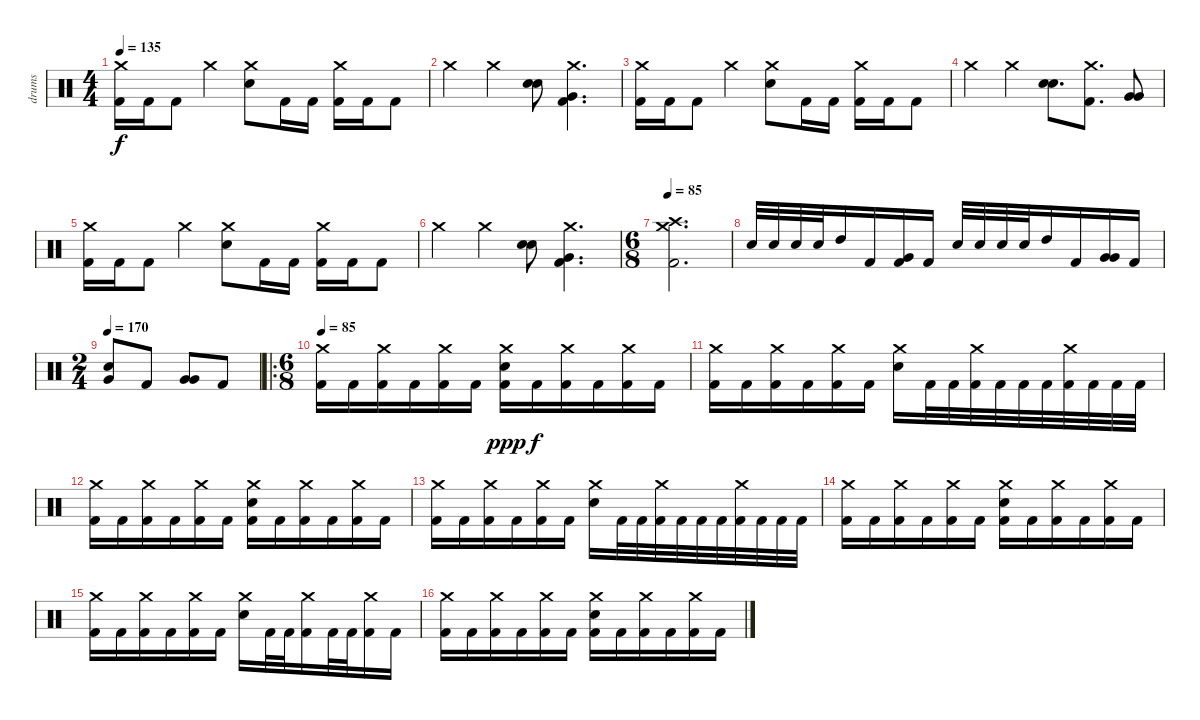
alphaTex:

\track ("drums" "drums") {instrument percussion}
\staff {score}
\articulation defaults
\ts (4 4)
\tempo 135
\clef neutral
\ks c
("Crash medium (hit)" "Kick (hit) 2").16{dy f} "Kick (hit) 2".16 "Kick (hit) 2".8 "Crash medium (hit)".4 ("Crash medium (hit)" "Electric Snare (hit)").8 "Kick (hit) 2".16 "Kick (hit) 2".16 ("Crash medium (hit)" "Kick (hit) 2").16 "Kick (hit) 2".16 "Kick (hit) 2".8 |
"Crash medium (hit)".4 "Crash medium (hit)".4 ("Electric Snare (hit)" "Electric Snare (hit)").8 ("Crash medium (hit)" "Very Low Tom (hit)" "Kick (hit) 2").4{d} |
("Crash medium (hit)" "Kick (hit) 2").16 "Kick (hit) 2".16 "Kick (hit) 2".8 "Crash medium (hit)".4 ("Crash medium (hit)" "Electric Snare (hit)").8 "Kick (hit) 2".16 "Kick (hit) 2".16 ("Crash medium (hit)" "Kick (hit) 2").16 "Kick (hit) 2".16 "Kick (hit) 2".8 |
"Crash medium (hit)".4 "Crash medium (hit)".4 ("Electric Snare (hit)" "Electric Snare (hit)").8{d} ("Crash medium (hit)" "Kick (hit) 2").8{d} ("Very Low Tom (hit)" "Very Low Tom (hit)").8 |
("Crash medium (hit)" "Kick (hit) 2").16 "Kick (hit) 2".16 "Kick (hit) 2".8 "Crash medium (hit)".4 ("Crash medium (hit)" "Electric Snare (hit)").8 "Kick (hit) 2".16 "Kick (hit) 2".16 ("Crash medium (hit)" "Kick (hit) 2").16 "Kick (hit) 2".16 "Kick (hit) 2".8 |
"Crash medium (hit)".4 "Crash medium (hit)".4 ("Electric Snare (hit)" "Electric Snare (hit)").8 ("Crash medium (hit)" "Very Low Tom (hit)" "Kick (hit) 2").4{d} |
\ts (6 8)
\tempo 85
("Crash medium (hit)" "Crash high (hit)" "Kick (hit) 2").2{d} |
"Electric Snare (hit)".32 "Electric Snare (hit)".32 "Electric Snare (hit)".32 "Electric Snare (hit)".32 "High Tom (hit)".16 "Kick (hit) 2".16 ("Very Low Tom (hit)" "Kick (hit) 2").16 "Kick (hit) 2".16 "Electric Snare (hit)".32 "Electric Snare (hit)".32 "Electric Snare (hit)".32 "Electric Snare (hit)".32 "High Tom (hit)".16 "Kick (hit) 2".16 ("Very Low Tom (hit)" "Very Low Tom (hit)").16 "Kick (hit) 2".16 |
\ts (2 4)
\tempo 170
("Electric Snare (hit)" "Very Low Tom (hit)").8 "Kick (hit) 2".8 ("Very Low Tom (hit)" "Very Low Tom (hit)").8 "Kick (hit) 2".8 |
\ro
\ts (6 8)
\tempo 85
("Crash medium (hit)" "Kick (hit) 2").16 "Kick (hit) 2".16 ("Crash medium (hit)" "Kick (hit) 2").16 "Kick (hit) 2".16 ("Crash medium (hit)" "Kick (hit) 2").16 "Kick (hit) 2".16 ("Crash medium (hit)" "Electric Snare (hit)" "Kick (hit) 2").16{dy ppp} "Kick (hit) 2".16{dy f} ("Crash medium (hit)" "Kick (hit) 2").16 "Kick (hit) 2".16 ("Crash medium (hit)" "Kick (hit) 2").16 "Kick (hit) 2".16 |
("Crash medium (hit)" "Kick (hit) 2").16 "Kick (hit) 2".16 ("Crash medium (hit)" "Kick (hit) 2").16 "Kick (hit) 2".16 ("Crash medium (hit)" "Kick (hit) 2").16 "Kick (hit) 2".16 ("Crash medium (hit)" "Electric Snare (hit)").16 "Kick (hit) 2".32 "Kick (hit) 2".32 ("Crash medium (hit)" "Kick (hit) 2").32 "Kick (hit) 2".32 "Kick (hit) 2".32 "Kick (hit) 2".32 ("Crash medium (hit)" "Kick (hit) 2").32 "Kick (hit) 2".32 "Kick (hit) 2".32 "Kick (hit) 2".32 |
("Crash medium (hit)" "Kick (hit) 2").16 "Kick (hit) 2".16 ("Crash medium (hit)" "Kick (hit) 2").16 "Kick (hit) 2".16 ("Crash medium (hit)" "Kick (hit) 2").16 "Kick (hit) 2".16 ("Crash medium (hit)" "Electric Snare (hit)" "Kick (hit) 2").16 "Kick (hit) 2".16 ("Crash medium (hit)" "Kick (hit) 2").16 "Kick (hit) 2".16 ("Crash medium (hit)" "Kick (hit) 2").16 "Kick (hit) 2".16 |
("Crash medium (hit)" "Kick (hit) 2").16 "Kick (hit) 2".16 ("Crash medium (hit)" "Kick (hit) 2").16 "Kick (hit) 2".16 ("Crash medium (hit)" "Kick (hit) 2").16 "Kick (hit) 2".16 ("Crash medium (hit)" "Electric Snare (hit)").16 "Kick (hit) 2".32 "Kick (hit) 2".32 ("Crash medium (hit)" "Kick (hit) 2").32 "Kick (hit) 2".32 "Kick (hit) 2".32 "Kick (hit) 2".32 ("Crash medium (hit)" "Kick (hit) 2").32 "Kick (hit) 2".32 "Kick (hit) 2".32 "Kick (hit) 2".32 |
("Crash medium (hit)" "Kick (hit) 2").16 "Kick (hit) 2".16 ("Crash medium (hit)" "Kick (hit) 2").16 "Kick (hit) 2".16 ("Crash medium (hit)" "Kick (hit) 2").16 "Kick (hit) 2".16 ("Crash medium (hit)" "Electric Snare (hit)" "Kick (hit) 2").16 "Kick (hit) 2".16 ("Crash medium (hit)" "Kick (hit) 2").16 "Kick (hit) 2".16 ("Crash medium (hit)" "Kick (hit) 2").16 "Kick (hit) 2".16 |
("Crash medium (hit)" "Kick (hit) 2").16 "Kick (hit) 2".16 ("Crash medium (hit)" "Kick (hit) 2").16 "Kick (hit) 2".16 ("Crash medium (hit)" "Kick (hit) 2").16 "Kick (hit) 2".16 ("Crash medium (hit)" "Electric Snare (hit)").16 "Kick (hit) 2".32 "Kick (hit) 2".32 ("Crash medium (hit)" "Kick (hit) 2").16 "Kick (hit) 2".32 "Kick (hit) 2".32 ("Crash medium (hit)" "Kick (hit) 2").16 "Kick (hit) 2".16 |
("Crash medium (hit)" "Kick (hit) 2").16 "Kick (hit) 2".16 ("Crash medium (hit)" "Kick (hit) 2").16 "Kick (hit) 2".16 ("Crash medium (hit)" "Kick (hit) 2").16 "Kick (hit) 2".16 ("Crash medium (hit)" "Electric Snare (hit)" "Kick (hit) 2").16 "Kick (hit) 2".16 ("Crash medium (hit)" "Kick (hit) 2").16 "Kick (hit) 2".16 ("Crash medium (hit)" "Kick (hit) 2").16 "Kick (hit) 2".16
